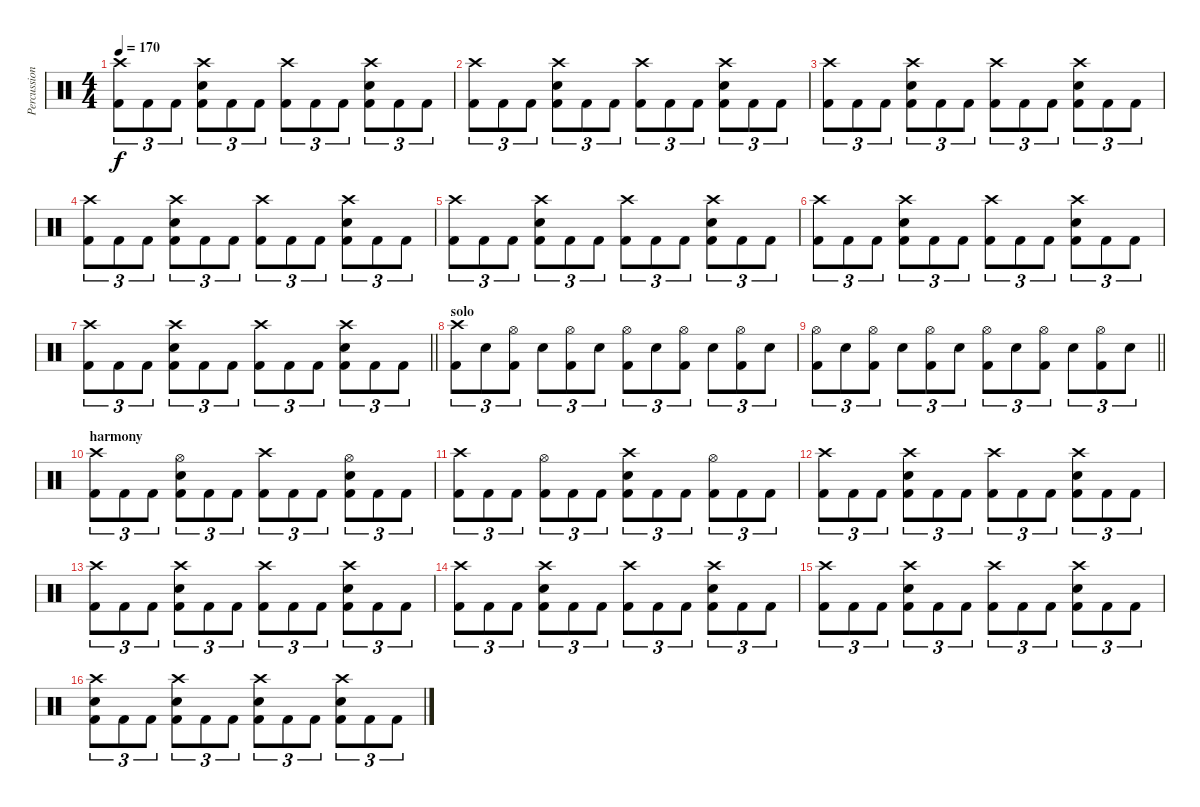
\track ("Percussion" "Percussion") {instrument percussion}
\staff {score}
\articulation defaults
\ts (4 4)
\tempo 170
\clef neutral
\ks c
("Crash high (hit)" "Kick (hit) 2").8{tu (3 2) dy f} "Kick (hit) 2".8{tu (3 2)} "Kick (hit) 2".8{tu (3 2)} ("Crash high (hit)" "Electric Snare (hit)" "Kick (hit) 2").8{tu (3 2)} "Kick (hit) 2".8{tu (3 2)} "Kick (hit) 2".8{tu (3 2)} ("Crash high (hit)" "Kick (hit) 2").8{tu (3 2)} "Kick (hit) 2".8{tu (3 2)} "Kick (hit) 2".8{tu (3 2)} ("Crash high (hit)" "Electric Snare (hit)" "Kick (hit) 2").8{tu (3 2)} "Kick (hit) 2".8{tu (3 2)} "Kick (hit) 2".8{tu (3 2)} |
("Crash high (hit)" "Kick (hit) 2").8{tu (3 2)} "Kick (hit) 2".8{tu (3 2)} "Kick (hit) 2".8{tu (3 2)} ("Crash high (hit)" "Electric Snare (hit)" "Kick (hit) 2").8{tu (3 2)} "Kick (hit) 2".8{tu (3 2)} "Kick (hit) 2".8{tu (3 2)} ("Crash high (hit)" "Kick (hit) 2").8{tu (3 2)} "Kick (hit) 2".8{tu (3 2)} "Kick (hit) 2".8{tu (3 2)} ("Crash high (hit)" "Electric Snare (hit)" "Kick (hit) 2").8{tu (3 2)} "Kick (hit) 2".8{tu (3 2)} "Kick (hit) 2".8{tu (3 2)} |
("Crash high (hit)" "Kick (hit) 2").8{tu (3 2)} "Kick (hit) 2".8{tu (3 2)} "Kick (hit) 2".8{tu (3 2)} ("Crash high (hit)" "Electric Snare (hit)" "Kick (hit) 2").8{tu (3 2)} "Kick (hit) 2".8{tu (3 2)} "Kick (hit) 2".8{tu (3 2)} ("Crash high (hit)" "Kick (hit) 2").8{tu (3 2)} "Kick (hit) 2".8{tu (3 2)} "Kick (hit) 2".8{tu (3 2)} ("Crash high (hit)" "Electric Snare (hit)" "Kick (hit) 2").8{tu (3 2)} "Kick (hit) 2".8{tu (3 2)} "Kick (hit) 2".8{tu (3 2)} |
("Crash high (hit)" "Kick (hit) 2").8{tu (3 2)} "Kick (hit) 2".8{tu (3 2)} "Kick (hit) 2".8{tu (3 2)} ("Crash high (hit)" "Electric Snare (hit)" "Kick (hit) 2").8{tu (3 2)} "Kick (hit) 2".8{tu (3 2)} "Kick (hit) 2".8{tu (3 2)} ("Crash high (hit)" "Kick (hit) 2").8{tu (3 2)} "Kick (hit) 2".8{tu (3 2)} "Kick (hit) 2".8{tu (3 2)} ("Crash high (hit)" "Electric Snare (hit)" "Kick (hit) 2").8{tu (3 2)} "Kick (hit) 2".8{tu (3 2)} "Kick (hit) 2".8{tu (3 2)} |
("Crash high (hit)" "Kick (hit) 2").8{tu (3 2)} "Kick (hit) 2".8{tu (3 2)} "Kick (hit) 2".8{tu (3 2)} ("Crash high (hit)" "Electric Snare (hit)" "Kick (hit) 2").8{tu (3 2)} "Kick (hit) 2".8{tu (3 2)} "Kick (hit) 2".8{tu (3 2)} ("Crash high (hit)" "Kick (hit) 2").8{tu (3 2)} "Kick (hit) 2".8{tu (3 2)} "Kick (hit) 2".8{tu (3 2)} ("Crash high (hit)" "Electric Snare (hit)" "Kick (hit) 2").8{tu (3 2)} "Kick (hit) 2".8{tu (3 2)} "Kick (hit) 2".8{tu (3 2)} |
("Crash high (hit)" "Kick (hit) 2").8{tu (3 2)} "Kick (hit) 2".8{tu (3 2)} "Kick (hit) 2".8{tu (3 2)} ("Crash high (hit)" "Electric Snare (hit)" "Kick (hit) 2").8{tu (3 2)} "Kick (hit) 2".8{tu (3 2)} "Kick (hit) 2".8{tu (3 2)} ("Crash high (hit)" "Kick (hit) 2").8{tu (3 2)} "Kick (hit) 2".8{tu (3 2)} "Kick (hit) 2".8{tu (3 2)} ("Crash high (hit)" "Electric Snare (hit)" "Kick (hit) 2").8{tu (3 2)} "Kick (hit) 2".8{tu (3 2)} "Kick (hit) 2".8{tu (3 2)} |
\barLineRight lightlight
("Crash high (hit)" "Kick (hit) 2").8{tu (3 2)} "Kick (hit) 2".8{tu (3 2)} "Kick (hit) 2".8{tu (3 2)} ("Crash high (hit)" "Electric Snare (hit)" "Kick (hit) 2").8{tu (3 2)} "Kick (hit) 2".8{tu (3 2)} "Kick (hit) 2".8{tu (3 2)} ("Crash high (hit)" "Kick (hit) 2").8{tu (3 2)} "Kick (hit) 2".8{tu (3 2)} "Kick (hit) 2".8{tu (3 2)} ("Crash high (hit)" "Electric Snare (hit)" "Kick (hit) 2").8{tu (3 2)} "Kick (hit) 2".8{tu (3 2)} "Kick (hit) 2".8{tu (3 2)} |
\section ("" "solo")
("Crash high (hit)" "Kick (hit) 2").8{tu (3 2)} "Electric Snare (hit)".8{tu (3 2)} ("Hi-Hat (open)" "Kick (hit) 2").8{tu (3 2)} "Electric Snare (hit)".8{tu (3 2)} ("Hi-Hat (open)" "Kick (hit) 2").8{tu (3 2)} "Electric Snare (hit)".8{tu (3 2)} ("Hi-Hat (open)" "Kick (hit) 2").8{tu (3 2)} "Electric Snare (hit)".8{tu (3 2)} ("Hi-Hat (open)" "Kick (hit) 2").8{tu (3 2)} "Electric Snare (hit)".8{tu (3 2)} ("Hi-Hat (open)" "Kick (hit) 2").8{tu (3 2)} "Electric Snare (hit)".8{tu (3 2)} |
\barLineRight lightlight
("Hi-Hat (open)" "Kick (hit) 2").8{tu (3 2)} "Electric Snare (hit)".8{tu (3 2)} ("Hi-Hat (open)" "Kick (hit) 2").8{tu (3 2)} "Electric Snare (hit)".8{tu (3 2)} ("Hi-Hat (open)" "Kick (hit) 2").8{tu (3 2)} "Electric Snare (hit)".8{tu (3 2)} ("Hi-Hat (open)" "Kick (hit) 2").8{tu (3 2)} "Electric Snare (hit)".8{tu (3 2)} ("Hi-Hat (open)" "Kick (hit) 2").8{tu (3 2)} "Electric Snare (hit)".8{tu (3 2)} ("Hi-Hat (open)" "Kick (hit) 2").8{tu (3 2)} "Electric Snare (hit)".8{tu (3 2)} |
\section ("" "harmony")
("Crash high (hit)" "Kick (hit) 2").8{tu (3 2)} "Kick (hit) 2".8{tu (3 2)} "Kick (hit) 2".8{tu (3 2)} ("Hi-Hat (open)" "Electric Snare (hit)" "Kick (hit) 2").8{tu (3 2)} "Kick (hit) 2".8{tu (3 2)} "Kick (hit) 2".8{tu (3 2)} ("Crash high (hit)" "Kick (hit) 2").8{tu (3 2)} "Kick (hit) 2".8{tu (3 2)} "Kick (hit) 2".8{tu (3 2)} ("Hi-Hat (open)" "Electric Snare (hit)" "Kick (hit) 2").8{tu (3 2)} "Kick (hit) 2".8{tu (3 2)} "Kick (hit) 2".8{tu (3 2)} |
("Crash high (hit)" "Kick (hit) 2").8{tu (3 2)} "Kick (hit) 2".8{tu (3 2)} "Kick (hit) 2".8{tu (3 2)} ("Hi-Hat (open)" "Kick (hit) 2").8{tu (3 2)} "Kick (hit) 2".8{tu (3 2)} "Kick (hit) 2".8{tu (3 2)} ("Crash high (hit)" "Electric Snare (hit)" "Kick (hit) 2").8{tu (3 2)} "Kick (hit) 2".8{tu (3 2)} "Kick (hit) 2".8{tu (3 2)} ("Hi-Hat (open)" "Kick (hit) 2").8{tu (3 2)} "Kick (hit) 2".8{tu (3 2)} "Kick (hit) 2".8{tu (3 2)} |
("Crash high (hit)" "Kick (hit) 2").8{tu (3 2)} "Kick (hit) 2".8{tu (3 2)} "Kick (hit) 2".8{tu (3 2)} ("Crash high (hit)" "Electric Snare (hit)" "Kick (hit) 2").8{tu (3 2)} "Kick (hit) 2".8{tu (3 2)} "Kick (hit) 2".8{tu (3 2)} ("Crash high (hit)" "Kick (hit) 2").8{tu (3 2)} "Kick (hit) 2".8{tu (3 2)} "Kick (hit) 2".8{tu (3 2)} ("Crash high (hit)" "Electric Snare (hit)" "Kick (hit) 2").8{tu (3 2)} "Kick (hit) 2".8{tu (3 2)} "Kick (hit) 2".8{tu (3 2)} |
("Crash high (hit)" "Kick (hit) 2").8{tu (3 2)} "Kick (hit) 2".8{tu (3 2)} "Kick (hit) 2".8{tu (3 2)} ("Crash high (hit)" "Electric Snare (hit)" "Kick (hit) 2").8{tu (3 2)} "Kick (hit) 2".8{tu (3 2)} "Kick (hit) 2".8{tu (3 2)} ("Crash high (hit)" "Kick (hit) 2").8{tu (3 2)} "Kick (hit) 2".8{tu (3 2)} "Kick (hit) 2".8{tu (3 2)} ("Crash high (hit)" "Electric Snare (hit)" "Kick (hit) 2").8{tu (3 2)} "Kick (hit) 2".8{tu (3 2)} "Kick (hit) 2".8{tu (3 2)} |
("Crash high (hit)" "Kick (hit) 2").8{tu (3 2)} "Kick (hit) 2".8{tu (3 2)} "Kick (hit) 2".8{tu (3 2)} ("Crash high (hit)" "Electric Snare (hit)" "Kick (hit) 2").8{tu (3 2)} "Kick (hit) 2".8{tu (3 2)} "Kick (hit) 2".8{tu (3 2)} ("Crash high (hit)" "Kick (hit) 2").8{tu (3 2)} "Kick (hit) 2".8{tu (3 2)} "Kick (hit) 2".8{tu (3 2)} ("Crash high (hit)" "Electric Snare (hit)" "Kick (hit) 2").8{tu (3 2)} "Kick (hit) 2".8{tu (3 2)} "Kick (hit) 2".8{tu (3 2)} |
("Crash high (hit)" "Kick (hit) 2").8{tu (3 2)} "Kick (hit) 2".8{tu (3 2)} "Kick (hit) 2".8{tu (3 2)} ("Crash high (hit)" "Electric Snare (hit)" "Kick (hit) 2").8{tu (3 2)} "Kick (hit) 2".8{tu (3 2)} "Kick (hit) 2".8{tu (3 2)} ("Crash high (hit)" "Kick (hit) 2").8{tu (3 2)} "Kick (hit) 2".8{tu (3 2)} "Kick (hit) 2".8{tu (3 2)} ("Crash high (hit)" "Electric Snare (hit)" "Kick (hit) 2").8{tu (3 2)} "Kick (hit) 2".8{tu (3 2)} "Kick (hit) 2".8{tu (3 2)} |
("Crash high (hit)" "Electric Snare (hit)" "Kick (hit) 2").8{tu (3 2)} "Kick (hit) 2".8{tu (3 2)} "Kick (hit) 2".8{tu (3 2)} ("Crash high (hit)" "Electric Snare (hit)" "Kick (hit) 2").8{tu (3 2)} "Kick (hit) 2".8{tu (3 2)} "Kick (hit) 2".8{tu (3 2)} ("Crash high (hit)" "Electric Snare (hit)" "Kick (hit) 2").8{tu (3 2)} "Kick (hit) 2".8{tu (3 2)} "Kick (hit) 2".8{tu (3 2)} ("Crash high (hit)" "Electric Snare (hit)" "Kick (hit) 2").8{tu (3 2)} "Kick (hit) 2".8{tu (3 2)} "Kick (hit) 2".8{tu (3 2)}
